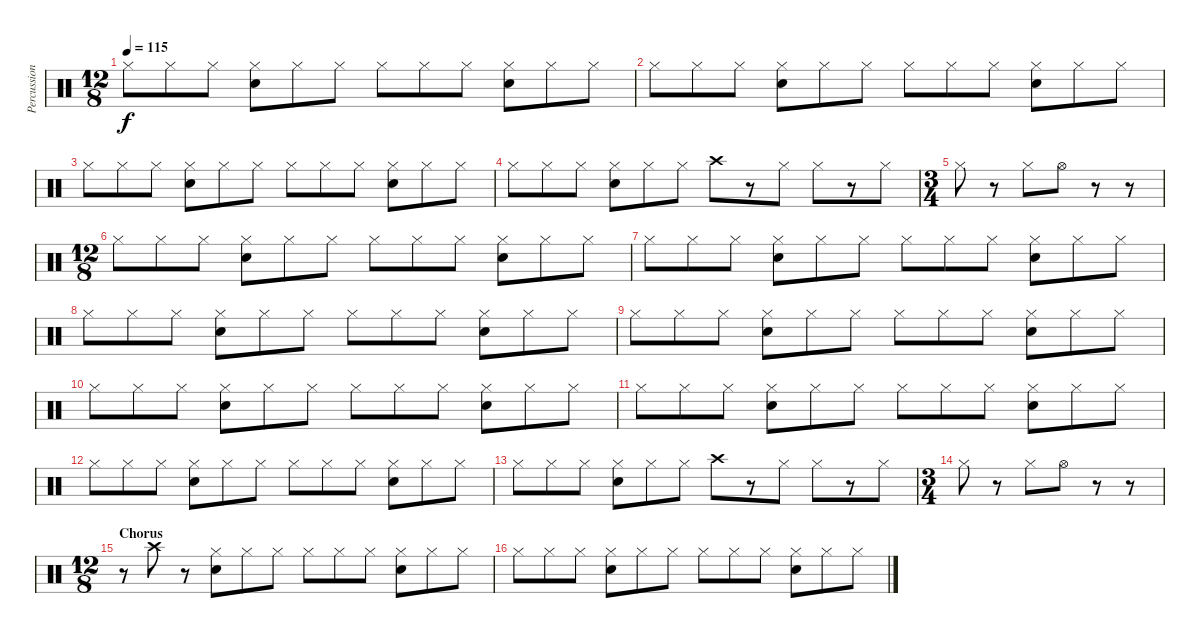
\track ("Percussions" "Percussion") {instrument percussion}
\staff {score}
\articulation defaults
\ts (12 8)
\tempo 115
\clef neutral
\ks c "Hi-Hat (closed)".8{dy f} "Hi-Hat (closed)".8 "Hi-Hat (closed)".8
("Hi-Hat (closed)" "Electric Snare (hit)").8 "Hi-Hat (closed)".8 "Hi-Hat (closed)".8 "Hi-Hat (closed)".8 "Hi-Hat (closed)".8 "Hi-Hat (closed)".8 ("Hi-Hat (closed)" "Electric Snare (hit)").8 "Hi-Hat (closed)".8 "Hi-Hat (closed)".8 |
"Hi-Hat (closed)".8 "Hi-Hat (closed)".8 "Hi-Hat (closed)".8 ("Hi-Hat (closed)" "Electric Snare (hit)").8 "Hi-Hat (closed)".8 "Hi-Hat (closed)".8 "Hi-Hat (closed)".8 "Hi-Hat (closed)".8 "Hi-Hat (closed)".8 ("Hi-Hat (closed)" "Electric Snare (hit)").8 "Hi-Hat (closed)".8 "Hi-Hat (closed)".8 |
"Hi-Hat (closed)".8 "Hi-Hat (closed)".8 "Hi-Hat (closed)".8 ("Hi-Hat (closed)" "Electric Snare (hit)").8 "Hi-Hat (closed)".8 "Hi-Hat (closed)".8 "Hi-Hat (closed)".8 "Hi-Hat (closed)".8 "Hi-Hat (closed)".8 ("Hi-Hat (closed)" "Electric Snare (hit)").8 "Hi-Hat (closed)".8 "Hi-Hat (closed)".8 |
"Hi-Hat (closed)".8 "Hi-Hat (closed)".8 "Hi-Hat (closed)".8 ("Hi-Hat (closed)" "Electric Snare (hit)").8 "Hi-Hat (closed)".8 "Hi-Hat (closed)".8 "Crash high (hit)".8 r.8 "Hi-Hat (closed)".8 "Hi-Hat (closed)".8 r.8 "Hi-Hat (closed)".8 |
\ts (3 4)
"Hi-Hat (closed)".8 r.8 "Hi-Hat (closed)".8 "Hi-Hat (open)".8 r.8 r.8 |
\ts (12 8)
"Hi-Hat (closed)".8 "Hi-Hat (closed)".8 "Hi-Hat (closed)".8 ("Hi-Hat (closed)" "Electric Snare (hit)").8 "Hi-Hat (closed)".8 "Hi-Hat (closed)".8 "Hi-Hat (closed)".8 "Hi-Hat (closed)".8 "Hi-Hat (closed)".8 ("Hi-Hat (closed)" "Electric Snare (hit)").8 "Hi-Hat (closed)".8 "Hi-Hat (closed)".8 |
"Hi-Hat (closed)".8 "Hi-Hat (closed)".8 "Hi-Hat (closed)".8 ("Hi-Hat (closed)" "Electric Snare (hit)").8 "Hi-Hat (closed)".8 "Hi-Hat (closed)".8 "Hi-Hat (closed)".8 "Hi-Hat (closed)".8 "Hi-Hat (closed)".8 ("Hi-Hat (closed)" "Electric Snare (hit)").8 "Hi-Hat (closed)".8 "Hi-Hat (closed)".8 |
"Hi-Hat (closed)".8 "Hi-Hat (closed)".8 "Hi-Hat (closed)".8 ("Hi-Hat (closed)" "Electric Snare (hit)").8 "Hi-Hat (closed)".8 "Hi-Hat (closed)".8 "Hi-Hat (closed)".8 "Hi-Hat (closed)".8 "Hi-Hat (closed)".8 ("Hi-Hat (closed)" "Electric Snare (hit)").8 "Hi-Hat (closed)".8 "Hi-Hat (closed)".8 |
"Hi-Hat (closed)".8 "Hi-Hat (closed)".8 "Hi-Hat (closed)".8 ("Hi-Hat (closed)" "Electric Snare (hit)").8 "Hi-Hat (closed)".8 "Hi-Hat (closed)".8 "Hi-Hat (closed)".8 "Hi-Hat (closed)".8 "Hi-Hat (closed)".8 ("Hi-Hat (closed)" "Electric Snare (hit)").8 "Hi-Hat (closed)".8 "Hi-Hat (closed)".8 |
"Hi-Hat (closed)".8 "Hi-Hat (closed)".8 "Hi-Hat (closed)".8 ("Hi-Hat (closed)" "Electric Snare (hit)").8 "Hi-Hat (closed)".8 "Hi-Hat (closed)".8 "Hi-Hat (closed)".8 "Hi-Hat (closed)".8 "Hi-Hat (closed)".8 ("Hi-Hat (closed)" "Electric Snare (hit)").8 "Hi-Hat (closed)".8 "Hi-Hat (closed)".8 |
"Hi-Hat (closed)".8 "Hi-Hat (closed)".8 "Hi-Hat (closed)".8 ("Hi-Hat (closed)" "Electric Snare (hit)").8 "Hi-Hat (closed)".8 "Hi-Hat (closed)".8 "Hi-Hat (closed)".8 "Hi-Hat (closed)".8 "Hi-Hat (closed)".8 ("Hi-Hat (closed)" "Electric Snare (hit)").8 "Hi-Hat (closed)".8 "Hi-Hat (closed)".8 |
"Hi-Hat (closed)".8 "Hi-Hat (closed)".8 "Hi-Hat (closed)".8 ("Hi-Hat (closed)" "Electric Snare (hit)").8 "Hi-Hat (closed)".8 "Hi-Hat (closed)".8 "Hi-Hat (closed)".8 "Hi-Hat (closed)".8 "Hi-Hat (closed)".8 ("Hi-Hat (closed)" "Electric Snare (hit)").8 "Hi-Hat (closed)".8 "Hi-Hat (closed)".8 |
"Hi-Hat (closed)".8 "Hi-Hat (closed)".8 "Hi-Hat (closed)".8 ("Hi-Hat (closed)" "Electric Snare (hit)").8 "Hi-Hat (closed)".8 "Hi-Hat (closed)".8 "Crash high (hit)".8 r.8 "Hi-Hat (closed)".8 "Hi-Hat (closed)".8 r.8 "Hi-Hat (closed)".8 |
\ts (3 4)
"Hi-Hat (closed)".8 r.8 "Hi-Hat (closed)".8 "Hi-Hat (open)".8 r.8 r.8 |
\ts (12 8)
\section ("" "Chorus")
r.8 "Crash high (hit)".8 r.8 ("Hi-Hat (closed)" "Electric Snare (hit)").8 "Hi-Hat (closed)".8 "Hi-Hat (closed)".8 "Hi-Hat (closed)".8 "Hi-Hat (closed)".8 "Hi-Hat (closed)".8 ("Hi-Hat (closed)" "Electric Snare (hit)").8 "Hi-Hat (closed)".8 "Hi-Hat (closed)".8 |
"Hi-Hat (closed)".8 "Hi-Hat (closed)".8 "Hi-Hat (closed)".8 ("Hi-Hat (closed)" "Electric Snare (hit)").8 "Hi-Hat (closed)".8 "Hi-Hat (closed)".8 "Hi-Hat (closed)".8 "Hi-Hat (closed)".8 "Hi-Hat (closed)".8 ("Hi-Hat (closed)" "Electric Snare (hit)").8 "Hi-Hat (closed)".8 "Hi-Hat (closed)".8
